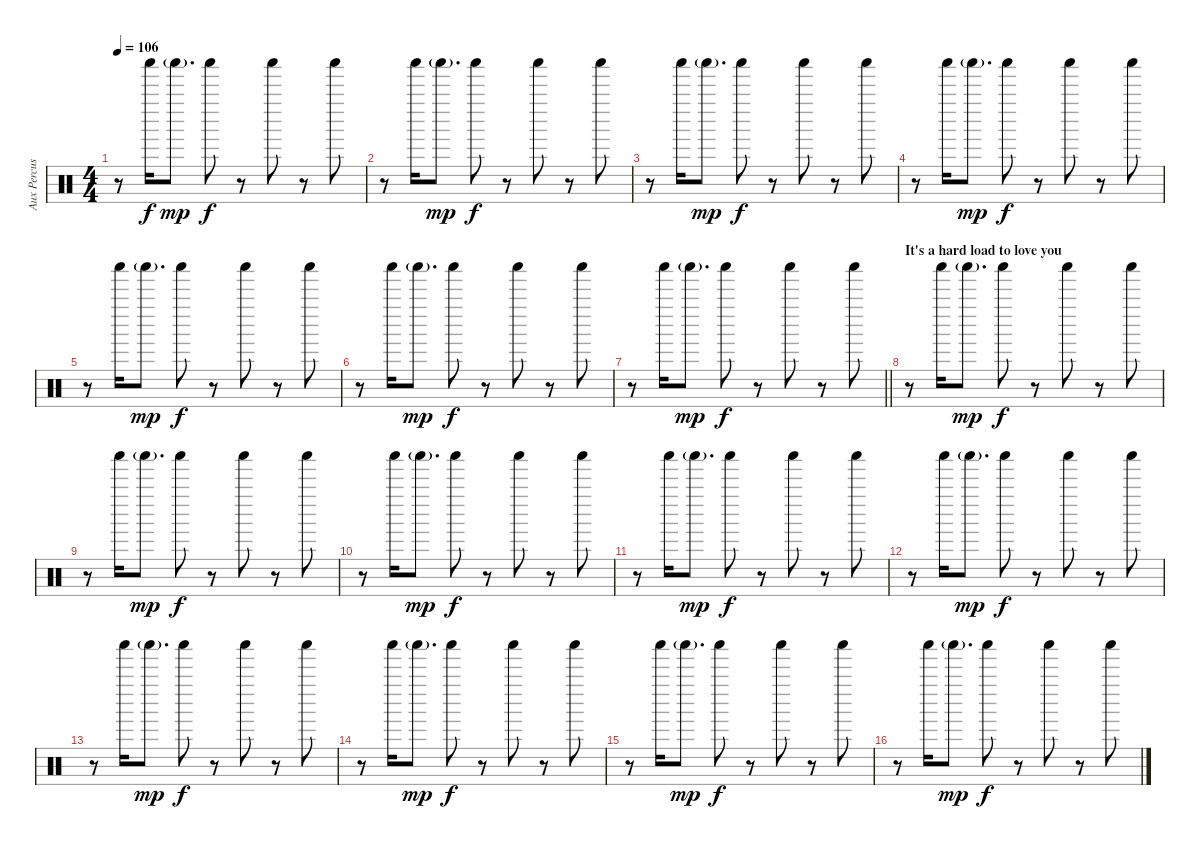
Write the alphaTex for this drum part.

\track ("Aux Percussion" "Aux Percus") {instrument percussion}
\staff {score}
\articulation defaults
\ts (4 4)
\tempo 106
\clef neutral
\ks c
r.8{dy f} "Shaker (hit)".16 "Shaker (hit)"{g}.8{d dy mp} "Shaker (hit)".8{dy f} r.8 "Shaker (hit)".8 r.8 "Shaker (hit)".8 |
r.8 "Shaker (hit)".16 "Shaker (hit)"{g}.8{d dy mp} "Shaker (hit)".8{dy f} r.8 "Shaker (hit)".8 r.8 "Shaker (hit)".8 |
r.8 "Shaker (hit)".16 "Shaker (hit)"{g}.8{d dy mp} "Shaker (hit)".8{dy f} r.8 "Shaker (hit)".8 r.8 "Shaker (hit)".8 |
r.8 "Shaker (hit)".16 "Shaker (hit)"{g}.8{d dy mp} "Shaker (hit)".8{dy f} r.8 "Shaker (hit)".8 r.8 "Shaker (hit)".8 |
r.8 "Shaker (hit)".16 "Shaker (hit)"{g}.8{d dy mp} "Shaker (hit)".8{dy f} r.8 "Shaker (hit)".8 r.8 "Shaker (hit)".8 |
r.8 "Shaker (hit)".16 "Shaker (hit)"{g}.8{d dy mp} "Shaker (hit)".8{dy f} r.8 "Shaker (hit)".8 r.8 "Shaker (hit)".8 |
\barLineRight lightlight
r.8 "Shaker (hit)".16 "Shaker (hit)"{g}.8{d dy mp} "Shaker (hit)".8{dy f} r.8 "Shaker (hit)".8 r.8 "Shaker (hit)".8 |
\section ("" "It's a hard load to love you")
r.8 "Shaker (hit)".16 "Shaker (hit)"{g}.8{d dy mp} "Shaker (hit)".8{dy f} r.8 "Shaker (hit)".8 r.8 "Shaker (hit)".8 |
r.8 "Shaker (hit)".16 "Shaker (hit)"{g}.8{d dy mp} "Shaker (hit)".8{dy f} r.8 "Shaker (hit)".8 r.8 "Shaker (hit)".8 |
r.8 "Shaker (hit)".16 "Shaker (hit)"{g}.8{d dy mp} "Shaker (hit)".8{dy f} r.8 "Shaker (hit)".8 r.8 "Shaker (hit)".8 |
r.8 "Shaker (hit)".16 "Shaker (hit)"{g}.8{d dy mp} "Shaker (hit)".8{dy f} r.8 "Shaker (hit)".8 r.8 "Shaker (hit)".8 |
r.8 "Shaker (hit)".16 "Shaker (hit)"{g}.8{d dy mp} "Shaker (hit)".8{dy f} r.8 "Shaker (hit)".8 r.8 "Shaker (hit)".8 |
r.8 "Shaker (hit)".16 "Shaker (hit)"{g}.8{d dy mp} "Shaker (hit)".8{dy f} r.8 "Shaker (hit)".8 r.8 "Shaker (hit)".8 |
r.8 "Shaker (hit)".16 "Shaker (hit)"{g}.8{d dy mp} "Shaker (hit)".8{dy f} r.8 "Shaker (hit)".8 r.8 "Shaker (hit)".8 |
r.8 "Shaker (hit)".16 "Shaker (hit)"{g}.8{d dy mp} "Shaker (hit)".8{dy f} r.8 "Shaker (hit)".8 r.8 "Shaker (hit)".8 |
r.8 "Shaker (hit)".16 "Shaker (hit)"{g}.8{d dy mp} "Shaker (hit)".8{dy f} r.8 "Shaker (hit)".8 r.8 "Shaker (hit)".8
